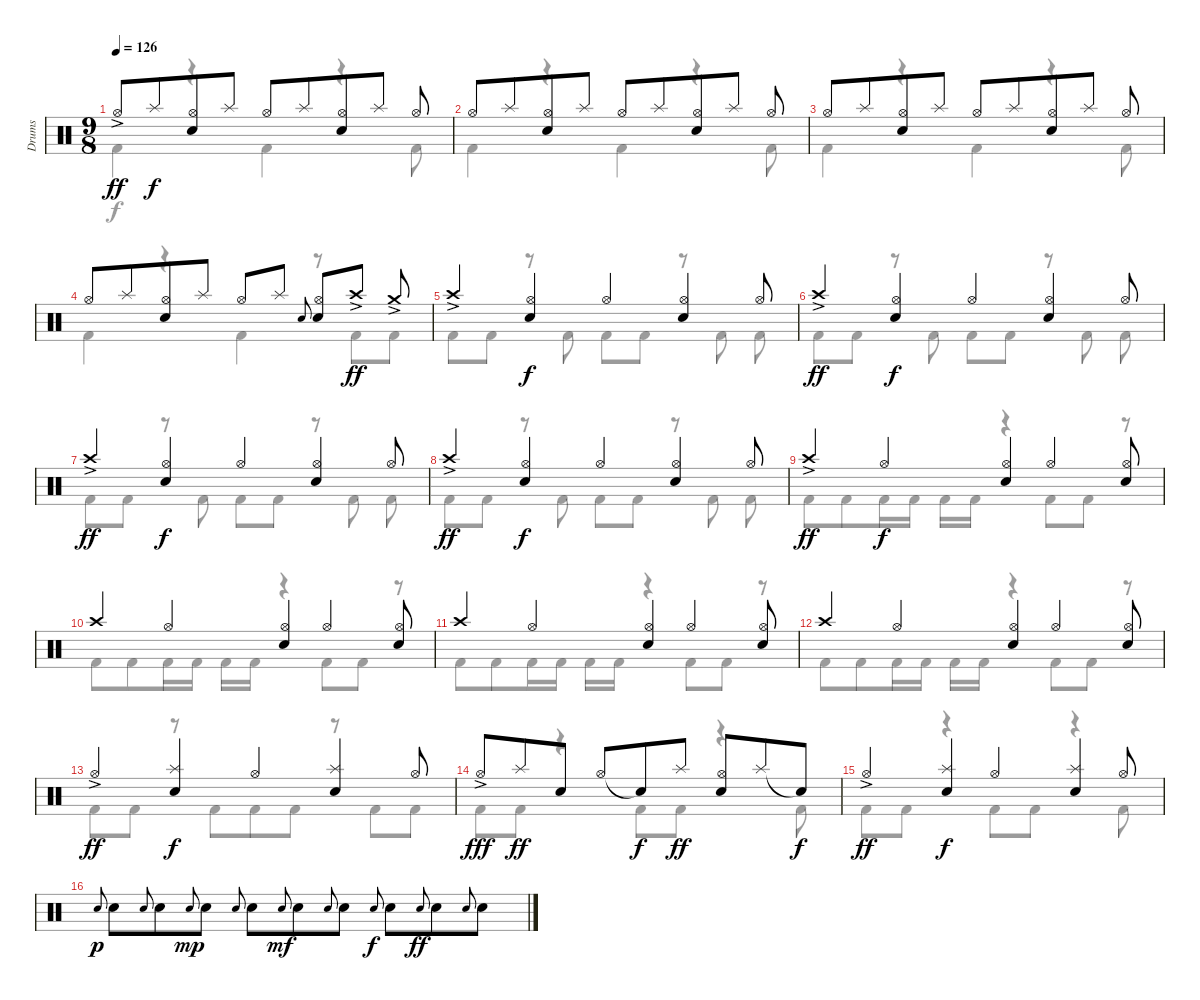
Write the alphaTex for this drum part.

\track ("Drums" "Drums") {instrument percussion}
\staff {score}
\articulation defaults
\voice
\ts (9 8)
\tempo 126
\clef neutral
\ks c "Hi-Hat (open)"{ac}.8{dy ff} "Splash (hit)".8{dy f}
("Hi-Hat (open)" "Electric Snare (hit)").8{beam merge} "Splash (hit)".8{beam split} "Hi-Hat (open)".8 "Splash (hit)".8{beam merge} ("Hi-Hat (open)" "Electric Snare (hit)").8 "Splash (hit)".8{beam split} "Hi-Hat (open)".8 |
"Hi-Hat (open)".8 "Splash (hit)".8 ("Hi-Hat (open)" "Electric Snare (hit)").8{beam merge} "Splash (hit)".8{beam split} "Hi-Hat (open)".8 "Splash (hit)".8{beam merge} ("Hi-Hat (open)" "Electric Snare (hit)").8 "Splash (hit)".8{beam split} "Hi-Hat (open)".8 |
"Hi-Hat (open)".8 "Splash (hit)".8 ("Hi-Hat (open)" "Electric Snare (hit)").8{beam merge} "Splash (hit)".8{beam split} "Hi-Hat (open)".8 "Splash (hit)".8{beam merge} ("Hi-Hat (open)" "Electric Snare (hit)").8{beam merge} "Splash (hit)".8{beam split} "Hi-Hat (open)".8 |
"Hi-Hat (open)".8 "Splash (hit)".8 ("Hi-Hat (open)" "Electric Snare (hit)").8{beam merge} "Splash (hit)".8{beam split} "Hi-Hat (open)".8 "Splash (hit)".8 "Electric Snare (hit)".8{gr onbeat beam merge} ("Hi-Hat (open)" "Electric Snare (hit)").8{beam merge} "Crash high (hit)"{ac}.8{dy ff beam split} "Crash medium (hit)"{ac}.8 |
"Crash high (hit)"{ac}.4 ("Hi-Hat (open)" "Electric Snare (hit)").4{dy f} "Hi-Hat (open)".4 ("Hi-Hat (open)" "Electric Snare (hit)").4 "Hi-Hat (open)".8 |
"Crash high (hit)"{ac}.4{dy ff} ("Hi-Hat (open)" "Electric Snare (hit)").4{dy f} "Hi-Hat (open)".4 ("Hi-Hat (open)" "Electric Snare (hit)").4 "Hi-Hat (open)".8 |
"Crash high (hit)"{ac}.4{dy ff} ("Hi-Hat (open)" "Electric Snare (hit)").4{dy f} "Hi-Hat (open)".4 ("Hi-Hat (open)" "Electric Snare (hit)").4 "Hi-Hat (open)".8 |
"Crash high (hit)"{ac}.4{dy ff} ("Hi-Hat (open)" "Electric Snare (hit)").4{dy f} "Hi-Hat (open)".4 ("Hi-Hat (open)" "Electric Snare (hit)").4 "Hi-Hat (open)".8 |
"Crash high (hit)"{ac}.4{dy ff} "Hi-Hat (open)".4{dy f} ("Hi-Hat (open)" "Electric Snare (hit)").4 "Hi-Hat (open)".4 ("Hi-Hat (open)" "Electric Snare (hit)").8 |
"Crash high (hit)".4 "Hi-Hat (open)".4 ("Hi-Hat (open)" "Electric Snare (hit)").4 "Hi-Hat (open)".4 ("Hi-Hat (open)" "Electric Snare (hit)").8 |
"Crash high (hit)".4 "Hi-Hat (open)".4 ("Hi-Hat (open)" "Electric Snare (hit)").4 "Hi-Hat (open)".4 ("Hi-Hat (open)" "Electric Snare (hit)").8 |
"Crash high (hit)".4 "Hi-Hat (open)".4 ("Hi-Hat (open)" "Electric Snare (hit)").4 "Hi-Hat (open)".4 ("Hi-Hat (open)" "Electric Snare (hit)").8 |
"Hi-Hat (open)"{ac}.4{dy ff} ("Splash (hit)" "Electric Snare (hit)").4{dy f} "Hi-Hat (open)".4 ("Splash (hit)" "Electric Snare (hit)").4 "Hi-Hat (open)".8 |
"Hi-Hat (open)"{ac}.8{dy fff} "Splash (hit)".8{dy ff} "Electric Snare (hit)".8 "Hi-Hat (open)".8 "Snare (hit)"{t}.8{dy f} "Splash (hit)".8{dy ff} ("Hi-Hat (open)" "Electric Snare (hit)").8 "Splash (hit)".8 "Snare (hit)"{t}.8{dy f} |
"Hi-Hat (open)"{ac}.4{dy ff} ("Splash (hit)" "Electric Snare (hit)").4{dy f} "Hi-Hat (open)".4 ("Splash (hit)" "Electric Snare (hit)").4 "Hi-Hat (open)".8 |
"Electric Snare (hit)".8{gr onbeat dy p} "Electric Snare (hit)".8 "Electric Snare (hit)".8{gr onbeat} "Electric Snare (hit)".8 "Electric Snare (hit)".8{gr onbeat dy mp} "Electric Snare (hit)".8 "Electric Snare (hit)".8{gr onbeat} "Electric Snare (hit)".8 "Electric Snare (hit)".8{gr onbeat dy mf} "Electric Snare (hit)".8 "Electric Snare (hit)".8{gr onbeat} "Electric Snare (hit)".8 "Electric Snare (hit)".8{gr onbeat dy f} "Electric Snare (hit)".8 "Electric Snare (hit)".8{gr onbeat dy ff} "Electric Snare (hit)".8 "Electric Snare (hit)".8{gr onbeat} "Electric Snare (hit)".8
\voice
\clef neutral
\ottava regular
\simile none
\ks c "Kick (hit) 2".4{dy f}
r.4 "Kick (hit) 2".4 r.4 "Kick (hit) 2".8 |
"Kick (hit) 2".4 r.4 "Kick (hit) 2".4 r.4 "Kick (hit) 2".8 |
"Kick (hit) 2".4 r.4 "Kick (hit) 2".4 r.4 "Kick (hit) 2".8 |
"Kick (hit) 2".4 r.4 "Kick (hit) 2".4 r.8 "Kick (hit) 2".8 "Kick (hit) 2".8 |
"Kick (hit) 2".8 "Kick (hit) 2".8 r.8 "Kick (hit) 2".8{beam Down beam split} "Kick (hit) 2".8{beam Down} "Kick (hit) 2".8{beam Down} r.8 "Kick (hit) 2".8{beam split} "Kick (hit) 2".8 |
"Kick (hit) 2".8 "Kick (hit) 2".8 r.8 "Kick (hit) 2".8{beam Down beam split} "Kick (hit) 2".8{beam Down} "Kick (hit) 2".8{beam Down} r.8 "Kick (hit) 2".8{beam split} "Kick (hit) 2".8 |
"Kick (hit) 2".8 "Kick (hit) 2".8 r.8 "Kick (hit) 2".8{beam Down beam split} "Kick (hit) 2".8{beam Down} "Kick (hit) 2".8{beam Down} r.8 "Kick (hit) 2".8{beam split} "Kick (hit) 2".8 |
"Kick (hit) 2".8 "Kick (hit) 2".8 r.8 "Kick (hit) 2".8{beam Down beam split} "Kick (hit) 2".8{beam Down} "Kick (hit) 2".8{beam Down} r.8 "Kick (hit) 2".8{beam split} "Kick (hit) 2".8 |
"Kick (hit) 2".8 "Kick (hit) 2".8 "Kick (hit) 2".16 "Kick (hit) 2".16 "Kick (hit) 2".16 "Kick (hit) 2".16 r.4 "Kick (hit) 2".8 "Kick (hit) 2".8 r.8 |
"Kick (hit) 2".8 "Kick (hit) 2".8 "Kick (hit) 2".16 "Kick (hit) 2".16 "Kick (hit) 2".16 "Kick (hit) 2".16 r.4 "Kick (hit) 2".8 "Kick (hit) 2".8 r.8 |
"Kick (hit) 2".8 "Kick (hit) 2".8 "Kick (hit) 2".16 "Kick (hit) 2".16 "Kick (hit) 2".16 "Kick (hit) 2".16 r.4 "Kick (hit) 2".8 "Kick (hit) 2".8 r.8 |
"Kick (hit) 2".8 "Kick (hit) 2".8 "Kick (hit) 2".16 "Kick (hit) 2".16 "Kick (hit) 2".16 "Kick (hit) 2".16 r.4 "Kick (hit) 2".8 "Kick (hit) 2".8 r.8 |
"Kick (hit) 2".8{dy ff} "Kick (hit) 2".8 r.8 "Kick (hit) 2".8 "Kick (hit) 2".8 "Kick (hit) 2".8 r.8 "Kick (hit) 2".8 "Kick (hit) 2".8 |
"Kick (hit) 2".8 "Kick (hit) 2".8 r.4 "Kick (hit) 2".8 "Kick (hit) 2".8 r.4 "Kick (hit) 2".8 |
"Kick (hit) 2".8 "Kick (hit) 2".8 r.4 "Kick (hit) 2".8 "Kick (hit) 2".8 r.4 "Kick (hit) 2".8 |
